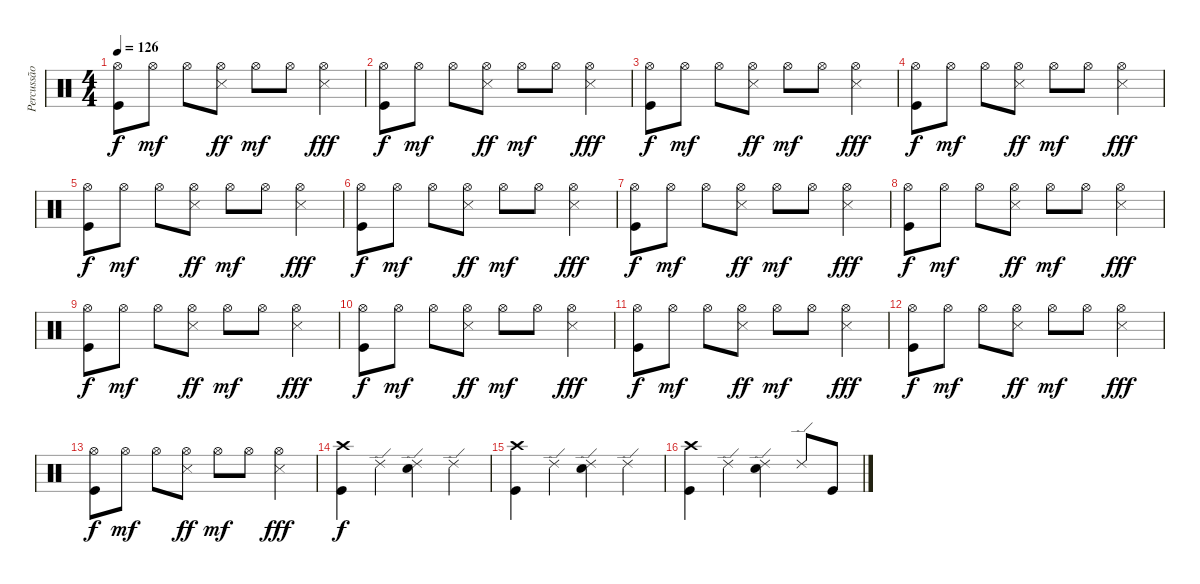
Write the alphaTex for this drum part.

\track ("Percussão" "Percussão") {instrument percussion}
\staff {score}
\articulation defaults
\ts (4 4)
\tempo 126
\clef neutral
\ks c
("Hi-Hat (open)" "Kick (hit)").8{dy f} "Hi-Hat (open)".8{dy mf} "Hi-Hat (open)".8 ("Hi-Hat (open)" "Snare (side stick) 3").8{dy ff} "Hi-Hat (open)".8{dy mf} "Hi-Hat (open)".8 ("Hi-Hat (open)" "Snare (side stick) 3").4{dy fff} |
("Hi-Hat (open)" "Kick (hit)").8{dy f} "Hi-Hat (open)".8{dy mf} "Hi-Hat (open)".8 ("Hi-Hat (open)" "Snare (side stick) 3").8{dy ff} "Hi-Hat (open)".8{dy mf} "Hi-Hat (open)".8 ("Hi-Hat (open)" "Snare (side stick) 3").4{dy fff} |
("Hi-Hat (open)" "Kick (hit)").8{dy f} "Hi-Hat (open)".8{dy mf} "Hi-Hat (open)".8 ("Hi-Hat (open)" "Snare (side stick) 3").8{dy ff} "Hi-Hat (open)".8{dy mf} "Hi-Hat (open)".8 ("Hi-Hat (open)" "Snare (side stick) 3").4{dy fff} |
("Hi-Hat (open)" "Kick (hit)").8{dy f} "Hi-Hat (open)".8{dy mf} "Hi-Hat (open)".8 ("Hi-Hat (open)" "Snare (side stick) 3").8{dy ff} "Hi-Hat (open)".8{dy mf} "Hi-Hat (open)".8 ("Hi-Hat (open)" "Snare (side stick) 3").4{dy fff} |
("Hi-Hat (open)" "Kick (hit)").8{dy f} "Hi-Hat (open)".8{dy mf} "Hi-Hat (open)".8 ("Hi-Hat (open)" "Snare (side stick) 3").8{dy ff} "Hi-Hat (open)".8{dy mf} "Hi-Hat (open)".8 ("Hi-Hat (open)" "Snare (side stick) 3").4{dy fff} |
("Hi-Hat (open)" "Kick (hit)").8{dy f} "Hi-Hat (open)".8{dy mf} "Hi-Hat (open)".8 ("Hi-Hat (open)" "Snare (side stick) 3").8{dy ff} "Hi-Hat (open)".8{dy mf} "Hi-Hat (open)".8 ("Hi-Hat (open)" "Snare (side stick) 3").4{dy fff} |
("Hi-Hat (open)" "Kick (hit)").8{dy f} "Hi-Hat (open)".8{dy mf} "Hi-Hat (open)".8 ("Hi-Hat (open)" "Snare (side stick) 3").8{dy ff} "Hi-Hat (open)".8{dy mf} "Hi-Hat (open)".8 ("Hi-Hat (open)" "Snare (side stick) 3").4{dy fff} |
("Hi-Hat (open)" "Kick (hit)").8{dy f} "Hi-Hat (open)".8{dy mf} "Hi-Hat (open)".8 ("Hi-Hat (open)" "Snare (side stick) 3").8{dy ff} "Hi-Hat (open)".8{dy mf} "Hi-Hat (open)".8 ("Hi-Hat (open)" "Snare (side stick) 3").4{dy fff} |
("Hi-Hat (open)" "Kick (hit)").8{dy f} "Hi-Hat (open)".8{dy mf} "Hi-Hat (open)".8 ("Hi-Hat (open)" "Snare (side stick) 3").8{dy ff} "Hi-Hat (open)".8{dy mf} "Hi-Hat (open)".8 ("Hi-Hat (open)" "Snare (side stick) 3").4{dy fff} |
("Hi-Hat (open)" "Kick (hit)").8{dy f} "Hi-Hat (open)".8{dy mf} "Hi-Hat (open)".8 ("Hi-Hat (open)" "Snare (side stick) 3").8{dy ff} "Hi-Hat (open)".8{dy mf} "Hi-Hat (open)".8 ("Hi-Hat (open)" "Snare (side stick) 3").4{dy fff} |
("Hi-Hat (open)" "Kick (hit)").8{dy f} "Hi-Hat (open)".8{dy mf} "Hi-Hat (open)".8 ("Hi-Hat (open)" "Snare (side stick) 3").8{dy ff} "Hi-Hat (open)".8{dy mf} "Hi-Hat (open)".8 ("Hi-Hat (open)" "Snare (side stick) 3").4{dy fff} |
("Hi-Hat (open)" "Kick (hit)").8{dy f} "Hi-Hat (open)".8{dy mf} "Hi-Hat (open)".8 ("Hi-Hat (open)" "Snare (side stick) 3").8{dy ff} "Hi-Hat (open)".8{dy mf} "Hi-Hat (open)".8 ("Hi-Hat (open)" "Snare (side stick) 3").4{dy fff} |
("Hi-Hat (open)" "Kick (hit)").8{dy f} "Hi-Hat (open)".8{dy mf} "Hi-Hat (open)".8 ("Hi-Hat (open)" "Snare (side stick) 3").8{dy ff} "Hi-Hat (open)".8{dy mf} "Hi-Hat (open)".8 ("Hi-Hat (open)" "Snare (side stick) 3").4{dy fff} |
("Crash high (hit)" "Kick (hit)").4{dy f} "Ride (edge) 2".4 ("Ride (edge) 2" "Electric Snare (hit)").4 "Ride (edge) 2".4 |
("Crash high (hit)" "Kick (hit)").4 "Ride (edge) 2".4 ("Ride (edge) 2" "Electric Snare (hit)").4 "Ride (edge) 2".4 |
("Crash high (hit)" "Kick (hit)").4 "Ride (edge) 2".4 ("Ride (edge) 2" "Electric Snare (hit)").4 "Ride (edge) 2".8 "Kick (hit)".8
